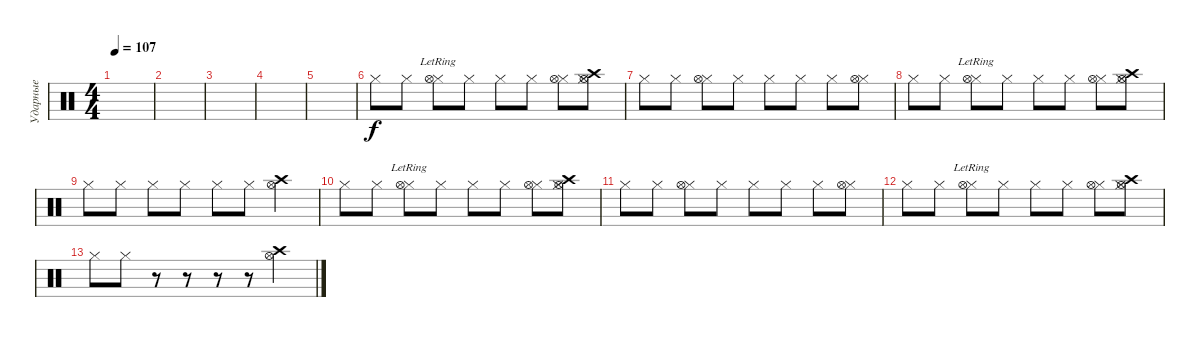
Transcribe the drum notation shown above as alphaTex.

\track ("Ударные" "Ударные") {instrument percussion}
\staff {score}
\articulation defaults
\ts (4 4)
\tempo 107
\clef neutral
\ks c
|
|
|
|
|
"Hi-Hat (closed)".8 "Hi-Hat (closed)".8 ("Hi-Hat (closed)" "Hi-Hat (open)"{lr}).8 "Hi-Hat (closed)".8 "Hi-Hat (closed)".8 "Hi-Hat (closed)".8 ("Hi-Hat (closed)" "Hi-Hat (open)").8 ("Hi-Hat (closed)" "Hi-Hat (open)" "Crash high (hit)").8 |
"Hi-Hat (closed)".8 "Hi-Hat (closed)".8 ("Hi-Hat (closed)" "Hi-Hat (open)").8 "Hi-Hat (closed)".8 "Hi-Hat (closed)".8 "Hi-Hat (closed)".8 "Hi-Hat (closed)".8 ("Hi-Hat (closed)" "Hi-Hat (open)").8 |
"Hi-Hat (closed)".8 "Hi-Hat (closed)".8 ("Hi-Hat (closed)" "Hi-Hat (open)"{lr}).8 "Hi-Hat (closed)".8 "Hi-Hat (closed)".8 "Hi-Hat (closed)".8 ("Hi-Hat (closed)" "Hi-Hat (open)").8 ("Hi-Hat (closed)" "Hi-Hat (open)" "Crash high (hit)").8 |
"Hi-Hat (closed)".8 "Hi-Hat (closed)".8 "Hi-Hat (closed)".8 "Hi-Hat (closed)".8 "Hi-Hat (closed)".8 "Hi-Hat (closed)".8 ("Hi-Hat (open)" "Crash high (hit)").4 |
"Hi-Hat (closed)".8 "Hi-Hat (closed)".8 ("Hi-Hat (closed)" "Hi-Hat (open)"{lr}).8 "Hi-Hat (closed)".8 "Hi-Hat (closed)".8 "Hi-Hat (closed)".8 ("Hi-Hat (closed)" "Hi-Hat (open)").8 ("Hi-Hat (closed)" "Hi-Hat (open)" "Crash high (hit)").8 |
"Hi-Hat (closed)".8 "Hi-Hat (closed)".8 ("Hi-Hat (closed)" "Hi-Hat (open)").8 "Hi-Hat (closed)".8 "Hi-Hat (closed)".8 "Hi-Hat (closed)".8 "Hi-Hat (closed)".8 ("Hi-Hat (closed)" "Hi-Hat (open)").8 |
"Hi-Hat (closed)".8 "Hi-Hat (closed)".8 ("Hi-Hat (closed)" "Hi-Hat (open)"{lr}).8 "Hi-Hat (closed)".8 "Hi-Hat (closed)".8 "Hi-Hat (closed)".8 ("Hi-Hat (closed)" "Hi-Hat (open)").8 ("Hi-Hat (closed)" "Hi-Hat (open)" "Crash high (hit)").8 |
"Hi-Hat (closed)".8 "Hi-Hat (closed)".8 r.8 r.8 r.8 r.8 ("Hi-Hat (open)" "Crash high (hit)").4
